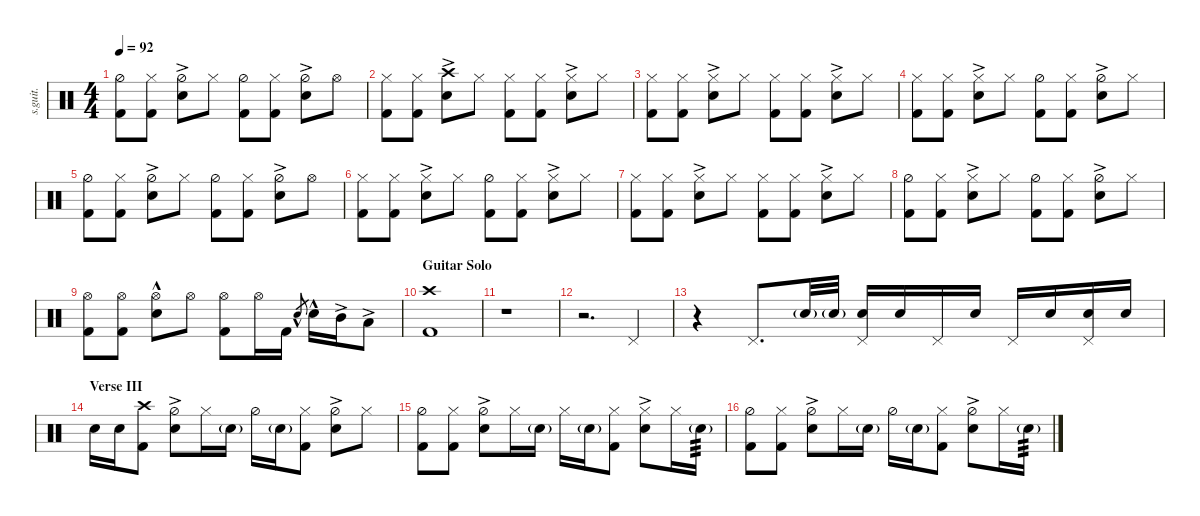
\defaultSystemsLayout 4
\hideDynamics
\bracketExtendMode nobrackets
\track ("Chad Smith | Pearl Masters Series | Drums" "s.guit.") {instrument percussion}
\staff {score}
\articulation defaults
\ts (4 4)
\tempo 92
\clef neutral
\ks c
("Hi-Hat (half)" "Kick (hit) 2").8{dy f} ("Hi-Hat (closed)" "Kick (hit) 2").8 ("Hi-Hat (half)" "Snare (hit) 2"{ac}).8 "Hi-Hat (closed)".8 ("Hi-Hat (half)" "Kick (hit) 2").8 ("Hi-Hat (closed)" "Kick (hit) 2").8 ("Hi-Hat (half)" "Snare (hit) 2"{ac}).8 "Hi-Hat (open)".8 |
("Hi-Hat (closed)" "Kick (hit) 2").8 ("Hi-Hat (closed)" "Kick (hit) 2").8 ("Crash high (hit)" "Snare (hit) 2"{ac}).8 "Hi-Hat (closed)".8 ("Hi-Hat (closed)" "Kick (hit) 2").8 ("Hi-Hat (closed)" "Kick (hit) 2").8 ("Hi-Hat (closed)" "Snare (hit) 2"{ac}).8 "Hi-Hat (closed)".8 |
("Hi-Hat (closed)" "Kick (hit) 2").8 ("Hi-Hat (closed)" "Kick (hit) 2").8 ("Hi-Hat (closed)" "Snare (hit) 2"{ac}).8 "Hi-Hat (closed)".8 ("Hi-Hat (closed)" "Kick (hit) 2").8 ("Hi-Hat (closed)" "Kick (hit) 2").8 ("Hi-Hat (closed)" "Snare (hit) 2"{ac}).8 "Hi-Hat (closed)".8 |
("Hi-Hat (closed)" "Kick (hit) 2").8 ("Hi-Hat (closed)" "Kick (hit) 2").8 ("Hi-Hat (closed)" "Snare (hit) 2"{ac}).8 "Hi-Hat (closed)".8 ("Hi-Hat (half)" "Kick (hit) 2").8 ("Hi-Hat (closed)" "Kick (hit) 2").8 ("Hi-Hat (half)" "Snare (hit) 2"{ac}).8 "Hi-Hat (closed)".8 |
("Hi-Hat (half)" "Kick (hit) 2").8 ("Hi-Hat (closed)" "Kick (hit) 2").8 ("Hi-Hat (half)" "Snare (hit) 2"{ac}).8 "Hi-Hat (closed)".8 ("Hi-Hat (half)" "Kick (hit) 2").8 ("Hi-Hat (closed)" "Kick (hit) 2").8 ("Hi-Hat (half)" "Snare (hit) 2"{ac}).8 "Hi-Hat (open)".8 |
("Hi-Hat (closed)" "Kick (hit) 2").8 ("Hi-Hat (closed)" "Kick (hit) 2").8 ("Hi-Hat (closed)" "Snare (hit) 2"{ac}).8 "Hi-Hat (closed)".8 ("Hi-Hat (half)" "Kick (hit) 2").8 ("Hi-Hat (closed)" "Kick (hit) 2").8 ("Hi-Hat (closed)" "Snare (hit) 2"{ac}).8 "Hi-Hat (closed)".8 |
("Hi-Hat (closed)" "Kick (hit) 2").8 ("Hi-Hat (closed)" "Kick (hit) 2").8 ("Hi-Hat (closed)" "Snare (hit) 2"{ac}).8 "Hi-Hat (closed)".8 ("Hi-Hat (closed)" "Kick (hit) 2").8 ("Hi-Hat (closed)" "Kick (hit) 2").8 ("Hi-Hat (closed)" "Snare (hit) 2"{ac}).8 "Hi-Hat (closed)".8 |
("Hi-Hat (half)" "Kick (hit) 2").8 ("Hi-Hat (closed)" "Kick (hit) 2").8 ("Hi-Hat (closed)" "Snare (hit) 2"{ac}).8 "Hi-Hat (closed)".8 ("Hi-Hat (half)" "Kick (hit) 2").8 ("Hi-Hat (closed)" "Kick (hit) 2").8 ("Hi-Hat (half)" "Snare (hit) 2"{ac}).8 "Hi-Hat (closed)".8 |
("Hi-Hat (open)" "Kick (hit) 2").8 ("Hi-Hat (open)" "Kick (hit) 2").8 ("Hi-Hat (open)" "Snare (hit) 2"{hac}).8 "Hi-Hat (open)".8 ("Hi-Hat (open)" "Kick (hit) 2").8 "Hi-Hat (open)".16 "Kick (hit) 2".16 "Snare (hit) 2"{hac}.8{gr} "Snare (hit) 2"{hac}.16 "Mid Tom (hit)"{ac}.16 "Low Floor Tom (hit)"{ac}.8 |
\section ("" "Guitar Solo")
("Crash high (hit)" "Kick (hit) 2").1 |
r.1 |
r.2{d} "Pedal Hi-Hat (hit)".4 |
r.4 "Pedal Hi-Hat (hit)".8{d} "Snare (hit) 2"{g}.32 "Snare (hit) 2"{g}.32 ("Snare (hit) 2" "Pedal Hi-Hat (hit)").16 "Snare (hit) 2".16 "Pedal Hi-Hat (hit)".16 "Snare (hit) 2".16 "Pedal Hi-Hat (hit)".16 "Snare (hit) 2".16 ("Snare (hit) 2" "Pedal Hi-Hat (hit)").16 "Snare (hit) 2".16 |
\section ("" "Verse III")
"Snare (hit) 2".16 "Snare (hit) 2".16 ("Crash high (hit)" "Kick (hit) 2").8 ("Hi-Hat (half)" "Snare (hit) 2"{ac}).8 "Hi-Hat (closed)".16 "Snare (hit) 2"{g}.16 "Hi-Hat (half)".16 "Snare (hit) 2"{g}.16 ("Hi-Hat (closed)" "Kick (hit) 2").8 ("Hi-Hat (half)" "Snare (hit) 2"{ac}).8 "Hi-Hat (closed)".8 |
("Hi-Hat (half)" "Kick (hit) 2").8 ("Hi-Hat (closed)" "Kick (hit) 2").8 ("Hi-Hat (half)" "Snare (hit) 2"{ac}).8 "Hi-Hat (closed)".16 "Snare (hit) 2"{g}.16 "Hi-Hat (closed)".16 "Snare (hit) 2"{g}.16 ("Hi-Hat (closed)" "Kick (hit) 2").8 ("Hi-Hat (closed)" "Snare (hit) 2"{ac}).8 "Hi-Hat (closed)".16 "Snare (hit) 2"{g}.16{tp 3} |
("Hi-Hat (half)" "Kick (hit) 2").8 ("Hi-Hat (closed)" "Kick (hit) 2").8 ("Hi-Hat (half)" "Snare (hit) 2"{ac}).8 "Hi-Hat (closed)".16 "Snare (hit) 2"{g}.16 "Hi-Hat (half)".16 "Snare (hit) 2"{g}.16 ("Hi-Hat (closed)" "Kick (hit) 2").8 ("Hi-Hat (half)" "Snare (hit) 2"{ac}).8 "Hi-Hat (closed)".16 "Snare (hit) 2"{g}.16{tp 3}
